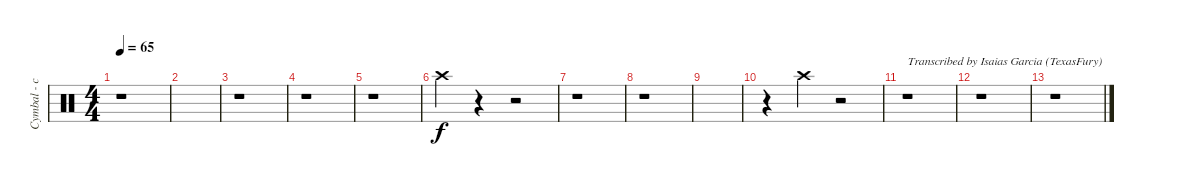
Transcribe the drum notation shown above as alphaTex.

\track ("Cymbal - crash - center" "Cymbal - c") {instrument percussion}
\staff {score}
\articulation defaults
\ts (4 4)
\tempo 65
\clef neutral
\ks c
r.1{dy f} |
|
r.1 |
r.1 |
r.1 |
"Crash high (hit)".4 r.4 r.2 |
r.1 |
r.1 |
|
r.4 "Crash high (hit)".4 r.2 |
r.1{txt "Transcribed by Isaias Garcia (TexasFury)"} |
r.1 |
r.1
